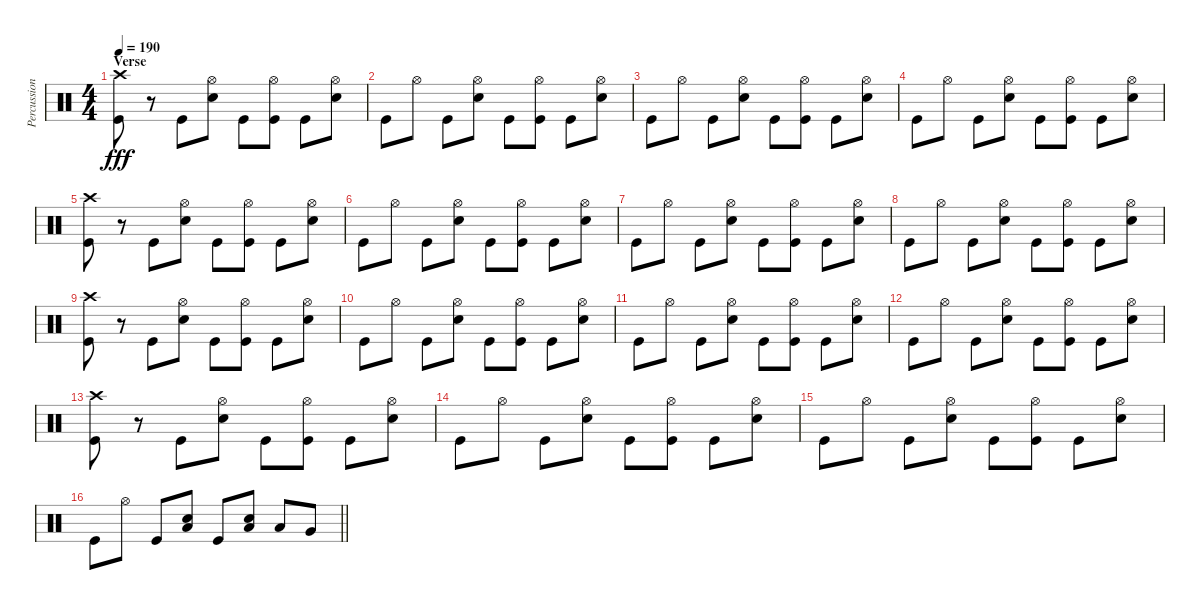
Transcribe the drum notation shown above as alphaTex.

\track ("Percussioni" "Percussion") {instrument percussion}
\staff {score}
\articulation defaults
\ts (4 4)
\section ("" "Verse")
\tempo 190
\clef neutral
\ks c
("Crash high (hit)" "Kick (hit)").8{dy fff} r.8 "Kick (hit)".8 ("Hi-Hat (open)" "Snare (hit) 2").8 "Kick (hit)".8 ("Hi-Hat (open)" "Kick (hit)").8 "Kick (hit)".8 ("Hi-Hat (open)" "Snare (hit) 2").8 |
"Kick (hit)".8 "Hi-Hat (open)".8 "Kick (hit)".8 ("Hi-Hat (open)" "Snare (hit) 2").8 "Kick (hit)".8 ("Hi-Hat (open)" "Kick (hit)").8 "Kick (hit)".8 ("Hi-Hat (open)" "Snare (hit) 2").8 |
"Kick (hit)".8 "Hi-Hat (open)".8 "Kick (hit)".8 ("Hi-Hat (open)" "Snare (hit) 2").8 "Kick (hit)".8 ("Hi-Hat (open)" "Kick (hit)").8 "Kick (hit)".8 ("Hi-Hat (open)" "Snare (hit) 2").8 |
"Kick (hit)".8 "Hi-Hat (open)".8 "Kick (hit)".8 ("Hi-Hat (open)" "Snare (hit) 2").8 "Kick (hit)".8 ("Hi-Hat (open)" "Kick (hit)").8 "Kick (hit)".8 ("Hi-Hat (open)" "Snare (hit) 2").8 |
("Crash high (hit)" "Kick (hit)").8 r.8 "Kick (hit)".8 ("Hi-Hat (open)" "Snare (hit) 2").8 "Kick (hit)".8 ("Hi-Hat (open)" "Kick (hit)").8 "Kick (hit)".8 ("Hi-Hat (open)" "Snare (hit) 2").8 |
"Kick (hit)".8 "Hi-Hat (open)".8 "Kick (hit)".8 ("Hi-Hat (open)" "Snare (hit) 2").8 "Kick (hit)".8 ("Hi-Hat (open)" "Kick (hit)").8 "Kick (hit)".8 ("Hi-Hat (open)" "Snare (hit) 2").8 |
"Kick (hit)".8 "Hi-Hat (open)".8 "Kick (hit)".8 ("Hi-Hat (open)" "Snare (hit) 2").8 "Kick (hit)".8 ("Hi-Hat (open)" "Kick (hit)").8 "Kick (hit)".8 ("Hi-Hat (open)" "Snare (hit) 2").8 |
"Kick (hit)".8 "Hi-Hat (open)".8 "Kick (hit)".8 ("Hi-Hat (open)" "Snare (hit) 2").8 "Kick (hit)".8 ("Hi-Hat (open)" "Kick (hit)").8 "Kick (hit)".8 ("Hi-Hat (open)" "Snare (hit) 2").8 |
("Crash high (hit)" "Kick (hit)").8 r.8 "Kick (hit)".8 ("Hi-Hat (open)" "Snare (hit) 2").8 "Kick (hit)".8 ("Hi-Hat (open)" "Kick (hit)").8 "Kick (hit)".8 ("Hi-Hat (open)" "Snare (hit) 2").8 |
"Kick (hit)".8 "Hi-Hat (open)".8 "Kick (hit)".8 ("Hi-Hat (open)" "Snare (hit) 2").8 "Kick (hit)".8 ("Hi-Hat (open)" "Kick (hit)").8 "Kick (hit)".8 ("Hi-Hat (open)" "Snare (hit) 2").8 |
"Kick (hit)".8 "Hi-Hat (open)".8 "Kick (hit)".8 ("Hi-Hat (open)" "Snare (hit) 2").8 "Kick (hit)".8 ("Hi-Hat (open)" "Kick (hit)").8 "Kick (hit)".8 ("Hi-Hat (open)" "Snare (hit) 2").8 |
"Kick (hit)".8 "Hi-Hat (open)".8 "Kick (hit)".8 ("Hi-Hat (open)" "Snare (hit) 2").8 "Kick (hit)".8 ("Hi-Hat (open)" "Kick (hit)").8 "Kick (hit)".8 ("Hi-Hat (open)" "Snare (hit) 2").8 |
("Crash high (hit)" "Kick (hit)").8 r.8 "Kick (hit)".8 ("Hi-Hat (open)" "Snare (hit) 2").8 "Kick (hit)".8 ("Hi-Hat (open)" "Kick (hit)").8 "Kick (hit)".8 ("Hi-Hat (open)" "Snare (hit) 2").8 |
"Kick (hit)".8 "Hi-Hat (open)".8 "Kick (hit)".8 ("Hi-Hat (open)" "Snare (hit) 2").8 "Kick (hit)".8 ("Hi-Hat (open)" "Kick (hit)").8 "Kick (hit)".8 ("Hi-Hat (open)" "Snare (hit) 2").8 |
"Kick (hit)".8 "Hi-Hat (open)".8 "Kick (hit)".8 ("Hi-Hat (open)" "Snare (hit) 2").8 "Kick (hit)".8 ("Hi-Hat (open)" "Kick (hit)").8 "Kick (hit)".8 ("Hi-Hat (open)" "Snare (hit) 2").8 |
\barLineRight lightlight "Kick (hit)".8 "Hi-Hat (open)".8 "Kick (hit)".8
("Low Floor Tom (hit)" "Snare (hit) 2").8 "Kick (hit)".8 ("Low Floor Tom (hit)" "Snare (hit) 2").8 "Low Tom (hit)".8 "Very Low Tom (hit)".8
